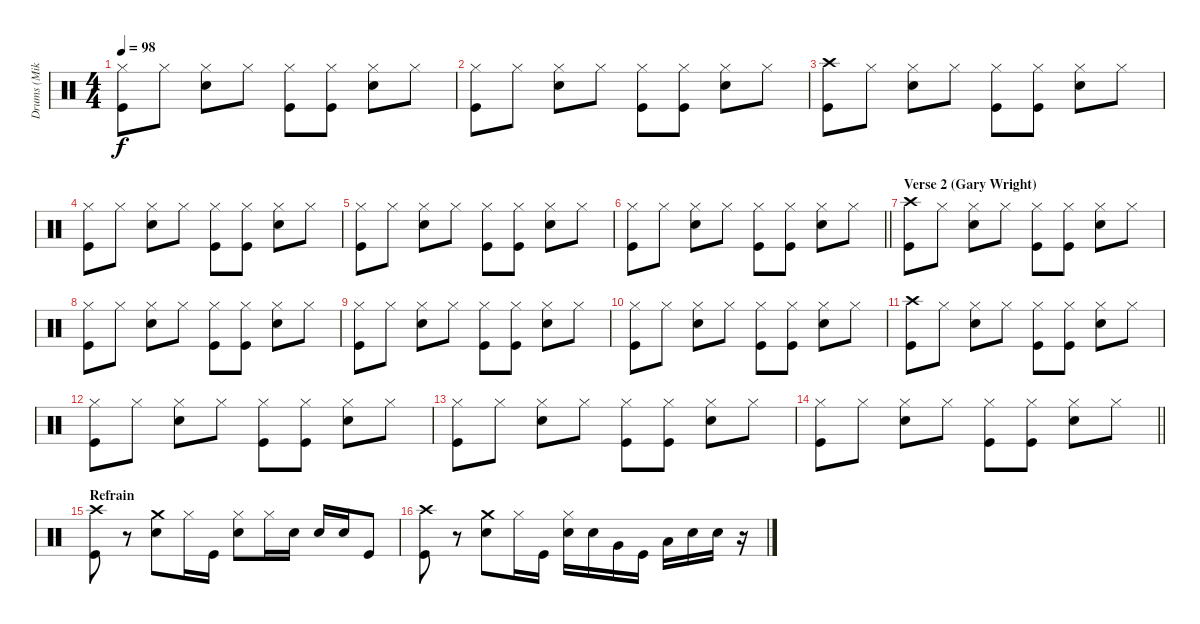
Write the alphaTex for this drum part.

\track ("Drums (Mike Kellie)" "Drums (Mik") {instrument percussion}
\staff {score}
\articulation defaults
\ts (4 4)
\tempo 98
\clef neutral
\ks c
("Hi-Hat (closed)" "Kick (hit)").8{dy f} "Hi-Hat (closed)".8 ("Hi-Hat (closed)" "Electric Snare (hit)").8 "Hi-Hat (closed)".8 ("Hi-Hat (closed)" "Kick (hit)").8 ("Hi-Hat (closed)" "Kick (hit)").8 ("Hi-Hat (closed)" "Electric Snare (hit)").8 "Hi-Hat (closed)".8 |
("Hi-Hat (closed)" "Kick (hit)").8 "Hi-Hat (closed)".8 ("Hi-Hat (closed)" "Electric Snare (hit)").8 "Hi-Hat (closed)".8 ("Hi-Hat (closed)" "Kick (hit)").8 ("Hi-Hat (closed)" "Kick (hit)").8 ("Hi-Hat (closed)" "Electric Snare (hit)").8 "Hi-Hat (closed)".8 |
("Crash high (hit)" "Kick (hit)").8 "Hi-Hat (closed)".8 ("Hi-Hat (closed)" "Electric Snare (hit)").8 "Hi-Hat (closed)".8 ("Hi-Hat (closed)" "Kick (hit)").8 ("Hi-Hat (closed)" "Kick (hit)").8 ("Hi-Hat (closed)" "Electric Snare (hit)").8 "Hi-Hat (closed)".8 |
("Hi-Hat (closed)" "Kick (hit)").8 "Hi-Hat (closed)".8 ("Hi-Hat (closed)" "Electric Snare (hit)").8 "Hi-Hat (closed)".8 ("Hi-Hat (closed)" "Kick (hit)").8 ("Hi-Hat (closed)" "Kick (hit)").8 ("Hi-Hat (closed)" "Electric Snare (hit)").8 "Hi-Hat (closed)".8 |
("Hi-Hat (closed)" "Kick (hit)").8 "Hi-Hat (closed)".8 ("Hi-Hat (closed)" "Electric Snare (hit)").8 "Hi-Hat (closed)".8 ("Hi-Hat (closed)" "Kick (hit)").8 ("Hi-Hat (closed)" "Kick (hit)").8 ("Hi-Hat (closed)" "Electric Snare (hit)").8 "Hi-Hat (closed)".8 |
\barLineRight lightlight
("Hi-Hat (closed)" "Kick (hit)").8 "Hi-Hat (closed)".8 ("Hi-Hat (closed)" "Electric Snare (hit)").8 "Hi-Hat (closed)".8 ("Hi-Hat (closed)" "Kick (hit)").8 ("Hi-Hat (closed)" "Kick (hit)").8 ("Hi-Hat (closed)" "Electric Snare (hit)").8 "Hi-Hat (closed)".8 |
\section ("" "Verse 2 (Gary Wright)")
("Crash high (hit)" "Kick (hit)").8 "Hi-Hat (closed)".8 ("Hi-Hat (closed)" "Electric Snare (hit)").8 "Hi-Hat (closed)".8 ("Hi-Hat (closed)" "Kick (hit)").8 ("Hi-Hat (closed)" "Kick (hit)").8 ("Hi-Hat (closed)" "Electric Snare (hit)").8 "Hi-Hat (closed)".8 |
("Hi-Hat (closed)" "Kick (hit)").8 "Hi-Hat (closed)".8 ("Hi-Hat (closed)" "Electric Snare (hit)").8 "Hi-Hat (closed)".8 ("Hi-Hat (closed)" "Kick (hit)").8 ("Hi-Hat (closed)" "Kick (hit)").8 ("Hi-Hat (closed)" "Electric Snare (hit)").8 "Hi-Hat (closed)".8 |
("Hi-Hat (closed)" "Kick (hit)").8 "Hi-Hat (closed)".8 ("Hi-Hat (closed)" "Electric Snare (hit)").8 "Hi-Hat (closed)".8 ("Hi-Hat (closed)" "Kick (hit)").8 ("Hi-Hat (closed)" "Kick (hit)").8 ("Hi-Hat (closed)" "Electric Snare (hit)").8 "Hi-Hat (closed)".8 |
("Hi-Hat (closed)" "Kick (hit)").8 "Hi-Hat (closed)".8 ("Hi-Hat (closed)" "Electric Snare (hit)").8 "Hi-Hat (closed)".8 ("Hi-Hat (closed)" "Kick (hit)").8 ("Hi-Hat (closed)" "Kick (hit)").8 ("Hi-Hat (closed)" "Electric Snare (hit)").8 "Hi-Hat (closed)".8 |
("Crash high (hit)" "Kick (hit)").8 "Hi-Hat (closed)".8 ("Hi-Hat (closed)" "Electric Snare (hit)").8 "Hi-Hat (closed)".8 ("Hi-Hat (closed)" "Kick (hit)").8 ("Hi-Hat (closed)" "Kick (hit)").8 ("Hi-Hat (closed)" "Electric Snare (hit)").8 "Hi-Hat (closed)".8 |
("Hi-Hat (closed)" "Kick (hit)").8 "Hi-Hat (closed)".8 ("Hi-Hat (closed)" "Electric Snare (hit)").8 "Hi-Hat (closed)".8 ("Hi-Hat (closed)" "Kick (hit)").8 ("Hi-Hat (closed)" "Kick (hit)").8 ("Hi-Hat (closed)" "Electric Snare (hit)").8 "Hi-Hat (closed)".8 |
("Hi-Hat (closed)" "Kick (hit)").8 "Hi-Hat (closed)".8 ("Hi-Hat (closed)" "Electric Snare (hit)").8 "Hi-Hat (closed)".8 ("Hi-Hat (closed)" "Kick (hit)").8 ("Hi-Hat (closed)" "Kick (hit)").8 ("Hi-Hat (closed)" "Electric Snare (hit)").8 "Hi-Hat (closed)".8 |
\barLineRight lightlight
("Hi-Hat (closed)" "Kick (hit)").8 "Hi-Hat (closed)".8 ("Hi-Hat (closed)" "Electric Snare (hit)").8 "Hi-Hat (closed)".8 ("Hi-Hat (closed)" "Kick (hit)").8 ("Hi-Hat (closed)" "Kick (hit)").8 ("Hi-Hat (closed)" "Electric Snare (hit)").8 "Hi-Hat (closed)".8 |
\section ("" "Refrain")
("Crash high (hit)" "Kick (hit)").8 r.8 ("Crash medium (hit)" "Electric Snare (hit)").8 "Hi-Hat (closed)".16 "Kick (hit)".16 ("Hi-Hat (closed)" "Electric Snare (hit)").8 "Hi-Hat (closed)".16 "Electric Snare (hit)".16 "Electric Snare (hit)".16 "Electric Snare (hit)".16 "Kick (hit)".8 |
("Crash high (hit)" "Kick (hit)").8 r.8 ("Crash medium (hit)" "Electric Snare (hit)").8 "Hi-Hat (closed)".16 "Kick (hit)".16 ("Hi-Hat (closed)" "Electric Snare (hit)").16 "Electric Snare (hit)".16 "Very Low Tom (hit)".16 "Kick (hit)".16 "Low Floor Tom (hit)".16 "Electric Snare (hit)".16 "Electric Snare (hit)".16 r.16
